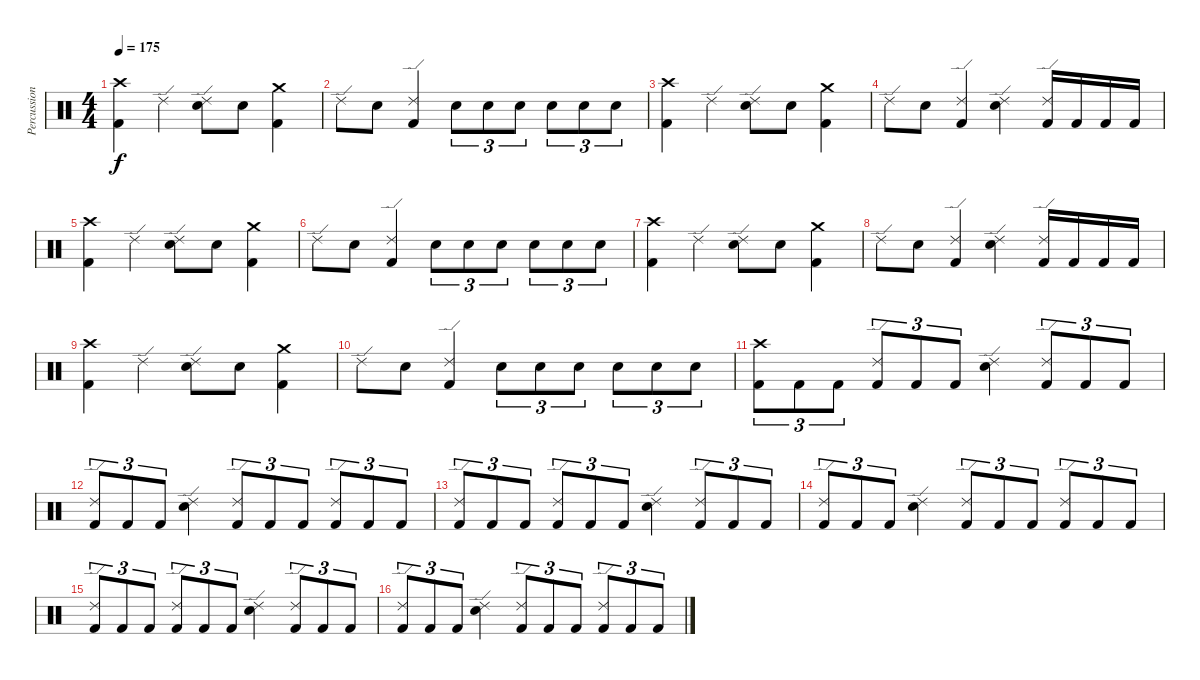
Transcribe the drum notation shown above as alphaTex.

\track ("Percussion" "Percussion") {instrument percussion}
\staff {score}
\articulation defaults
\ts (4 4)
\tempo 175
\clef neutral
\ks c
("Crash high (hit)" "Kick (hit) 2").4{dy f} "Ride (edge) 2".4 ("Ride (edge) 2" "Snare (hit) 2").8 "Snare (hit) 2".8 ("Crash medium (hit)" "Kick (hit) 2").4 |
"Ride (edge) 2".8 "Snare (hit) 2".8 ("Ride (edge) 2" "Kick (hit) 2").4 "Snare (hit) 2".8{tu (3 2)} "Snare (hit) 2".8{tu (3 2)} "Snare (hit) 2".8{tu (3 2)} "Snare (hit) 2".8{tu (3 2)} "Snare (hit) 2".8{tu (3 2)} "Snare (hit) 2".8{tu (3 2)} |
("Crash high (hit)" "Kick (hit) 2").4 "Ride (edge) 2".4 ("Ride (edge) 2" "Snare (hit) 2").8 "Snare (hit) 2".8 ("Crash medium (hit)" "Kick (hit) 2").4 |
"Ride (edge) 2".8 "Snare (hit) 2".8 ("Ride (edge) 2" "Kick (hit) 2").4 ("Ride (edge) 2" "Snare (hit) 2").4 ("Ride (edge) 2" "Kick (hit) 2").16 "Kick (hit) 2".16 "Kick (hit) 2".16 "Kick (hit) 2".16 |
("Crash high (hit)" "Kick (hit) 2").4 "Ride (edge) 2".4 ("Ride (edge) 2" "Snare (hit) 2").8 "Snare (hit) 2".8 ("Crash medium (hit)" "Kick (hit) 2").4 |
"Ride (edge) 2".8 "Snare (hit) 2".8 ("Ride (edge) 2" "Kick (hit) 2").4 "Snare (hit) 2".8{tu (3 2)} "Snare (hit) 2".8{tu (3 2)} "Snare (hit) 2".8{tu (3 2)} "Snare (hit) 2".8{tu (3 2)} "Snare (hit) 2".8{tu (3 2)} "Snare (hit) 2".8{tu (3 2)} |
("Crash high (hit)" "Kick (hit) 2").4 "Ride (edge) 2".4 ("Ride (edge) 2" "Snare (hit) 2").8 "Snare (hit) 2".8 ("Crash medium (hit)" "Kick (hit) 2").4 |
"Ride (edge) 2".8 "Snare (hit) 2".8 ("Ride (edge) 2" "Kick (hit) 2").4 ("Ride (edge) 2" "Snare (hit) 2").4 ("Ride (edge) 2" "Kick (hit) 2").16 "Kick (hit) 2".16 "Kick (hit) 2".16 "Kick (hit) 2".16 |
("Crash high (hit)" "Kick (hit) 2").4 "Ride (edge) 2".4 ("Ride (edge) 2" "Snare (hit) 2").8 "Snare (hit) 2".8 ("Crash medium (hit)" "Kick (hit) 2").4 |
"Ride (edge) 2".8 "Snare (hit) 2".8 ("Ride (edge) 2" "Kick (hit) 2").4 "Snare (hit) 2".8{tu (3 2)} "Snare (hit) 2".8{tu (3 2)} "Snare (hit) 2".8{tu (3 2)} "Snare (hit) 2".8{tu (3 2)} "Snare (hit) 2".8{tu (3 2)} "Snare (hit) 2".8{tu (3 2)} |
("Crash high (hit)" "Kick (hit) 2").8{tu (3 2)} "Kick (hit) 2".8{tu (3 2)} "Kick (hit) 2".8{tu (3 2)} ("Ride (edge) 2" "Kick (hit) 2").8{tu (3 2)} "Kick (hit) 2".8{tu (3 2)} "Kick (hit) 2".8{tu (3 2)} ("Ride (edge) 2" "Snare (hit) 2").4 ("Ride (edge) 2" "Kick (hit) 2").8{tu (3 2)} "Kick (hit) 2".8{tu (3 2)} "Kick (hit) 2".8{tu (3 2)} |
("Ride (edge) 2" "Kick (hit) 2").8{tu (3 2)} "Kick (hit) 2".8{tu (3 2)} "Kick (hit) 2".8{tu (3 2)} ("Ride (edge) 2" "Snare (hit) 2").4 ("Ride (edge) 2" "Kick (hit) 2").8{tu (3 2)} "Kick (hit) 2".8{tu (3 2)} "Kick (hit) 2".8{tu (3 2)} ("Ride (edge) 2" "Kick (hit) 2").8{tu (3 2)} "Kick (hit) 2".8{tu (3 2)} "Kick (hit) 2".8{tu (3 2)} |
("Ride (edge) 2" "Kick (hit) 2").8{tu (3 2)} "Kick (hit) 2".8{tu (3 2)} "Kick (hit) 2".8{tu (3 2)} ("Ride (edge) 2" "Kick (hit) 2").8{tu (3 2)} "Kick (hit) 2".8{tu (3 2)} "Kick (hit) 2".8{tu (3 2)} ("Ride (edge) 2" "Snare (hit) 2").4 ("Ride (edge) 2" "Kick (hit) 2").8{tu (3 2)} "Kick (hit) 2".8{tu (3 2)} "Kick (hit) 2".8{tu (3 2)} |
("Ride (edge) 2" "Kick (hit) 2").8{tu (3 2)} "Kick (hit) 2".8{tu (3 2)} "Kick (hit) 2".8{tu (3 2)} ("Ride (edge) 2" "Snare (hit) 2").4 ("Ride (edge) 2" "Kick (hit) 2").8{tu (3 2)} "Kick (hit) 2".8{tu (3 2)} "Kick (hit) 2".8{tu (3 2)} ("Ride (edge) 2" "Kick (hit) 2").8{tu (3 2)} "Kick (hit) 2".8{tu (3 2)} "Kick (hit) 2".8{tu (3 2)} |
("Ride (edge) 2" "Kick (hit) 2").8{tu (3 2)} "Kick (hit) 2".8{tu (3 2)} "Kick (hit) 2".8{tu (3 2)} ("Ride (edge) 2" "Kick (hit) 2").8{tu (3 2)} "Kick (hit) 2".8{tu (3 2)} "Kick (hit) 2".8{tu (3 2)} ("Ride (edge) 2" "Snare (hit) 2").4 ("Ride (edge) 2" "Kick (hit) 2").8{tu (3 2)} "Kick (hit) 2".8{tu (3 2)} "Kick (hit) 2".8{tu (3 2)} |
("Ride (edge) 2" "Kick (hit) 2").8{tu (3 2)} "Kick (hit) 2".8{tu (3 2)} "Kick (hit) 2".8{tu (3 2)} ("Ride (edge) 2" "Snare (hit) 2").4 ("Ride (edge) 2" "Kick (hit) 2").8{tu (3 2)} "Kick (hit) 2".8{tu (3 2)} "Kick (hit) 2".8{tu (3 2)} ("Ride (edge) 2" "Kick (hit) 2").8{tu (3 2)} "Kick (hit) 2".8{tu (3 2)} "Kick (hit) 2".8{tu (3 2)}
